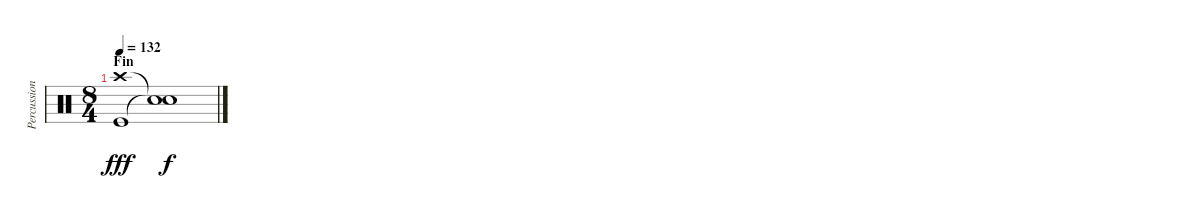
\track ("Percussion" "Percussion") {instrument percussion}
\staff {score}
\articulation defaults
\ts (8 4)
\section ("" "Fin")
\tempo 132
\clef neutral
\ks c
("Crash high (hit)" "Kick (hit)").1{dy fff} ("Snare (hit)"{t} "Snare (hit)"{t}).1{dy f}
